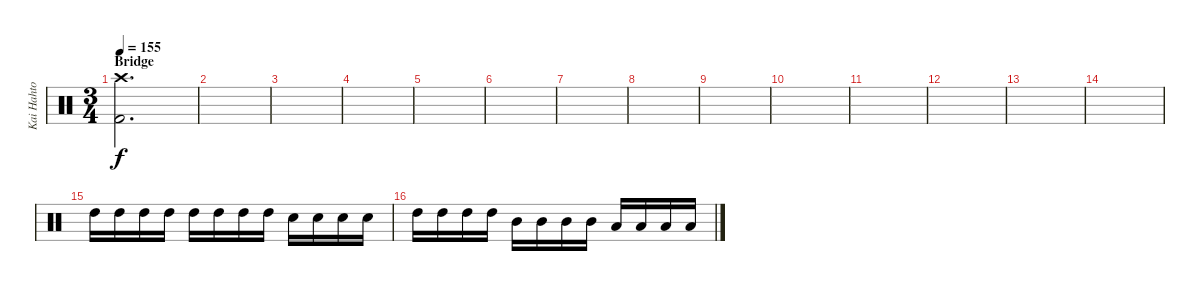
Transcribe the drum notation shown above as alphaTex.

\track ("Kai Hahto" "Kai Hahto") {instrument percussion}
\staff {score}
\articulation defaults
\ts (3 4)
\section ("" "Bridge")
\tempo 155
\clef neutral
\ks c
("Crash high (hit)" "Kick (hit) 2").2{d dy f} |
|
|
|
|
|
|
|
|
|
|
|
|
|
"High Tom (hit)".16 "High Tom (hit)".16 "High Tom (hit)".16 "High Tom (hit)".16 "High Tom (hit)".16 "High Tom (hit)".16 "High Tom (hit)".16 "High Tom (hit)".16 "Electric Snare (hit)".16 "Electric Snare (hit)".16 "Electric Snare (hit)".16 "Electric Snare (hit)".16 |
"High Tom (hit)".16 "High Tom (hit)".16 "High Tom (hit)".16 "High Tom (hit)".16 "Mid Tom (hit)".16 "Mid Tom (hit)".16 "Mid Tom (hit)".16 "Mid Tom (hit)".16 "Low Tom (hit)".16 "Low Tom (hit)".16 "Low Tom (hit)".16 "Low Tom (hit)".16
